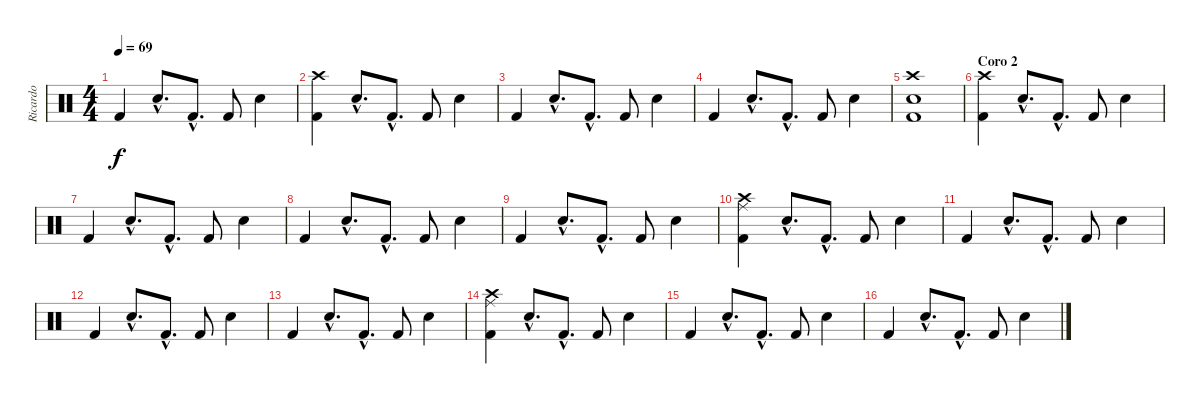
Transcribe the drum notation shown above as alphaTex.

\track ("Ricardo" "Ricardo") {instrument percussion}
\staff {score}
\articulation defaults
\ts (4 4)
\tempo 69
\clef neutral
\ks c "Kick (hit) 2".4{dy f} "Electric Snare (hit)"{hac}.8{d} "Kick (hit) 2"{hac}.8{d} "Kick (hit) 2".8 "Electric Snare (hit)".4
|
("Kick (hit) 2" "Crash high (hit)").4 "Electric Snare (hit)"{hac}.8{d} "Kick (hit) 2"{hac}.8{d} "Kick (hit) 2".8 "Electric Snare (hit)".4 |
"Kick (hit) 2".4 "Electric Snare (hit)"{hac}.8{d} "Kick (hit) 2"{hac}.8{d} "Kick (hit) 2".8 "Electric Snare (hit)".4 |
"Kick (hit) 2".4 "Electric Snare (hit)"{hac}.8{d} "Kick (hit) 2"{hac}.8{d} "Kick (hit) 2".8 "Electric Snare (hit)".4 |
("Kick (hit) 2" "Electric Snare (hit)" "Crash high (hit)").1 |
\section ("" "Coro 2")
("Kick (hit) 2" "Crash high (hit)").4 "Electric Snare (hit)"{hac}.8{d} "Kick (hit) 2"{hac}.8{d} "Kick (hit) 2".8 "Electric Snare (hit)".4 |
"Kick (hit) 2".4 "Electric Snare (hit)"{hac}.8{d} "Kick (hit) 2"{hac}.8{d} "Kick (hit) 2".8 "Electric Snare (hit)".4 |
"Kick (hit) 2".4 "Electric Snare (hit)"{hac}.8{d} "Kick (hit) 2"{hac}.8{d} "Kick (hit) 2".8 "Electric Snare (hit)".4 |
"Kick (hit) 2".4 "Electric Snare (hit)"{hac}.8{d} "Kick (hit) 2"{hac}.8{d} "Kick (hit) 2".8 "Electric Snare (hit)".4 |
("Kick (hit) 2" "Ride (middle)" "Crash high (hit)").4 "Electric Snare (hit)"{hac}.8{d} "Kick (hit) 2"{hac}.8{d} "Kick (hit) 2".8 "Electric Snare (hit)".4 |
"Kick (hit) 2".4 "Electric Snare (hit)"{hac}.8{d} "Kick (hit) 2"{hac}.8{d} "Kick (hit) 2".8 "Electric Snare (hit)".4 |
"Kick (hit) 2".4 "Electric Snare (hit)"{hac}.8{d} "Kick (hit) 2"{hac}.8{d} "Kick (hit) 2".8 "Electric Snare (hit)".4 |
"Kick (hit) 2".4 "Electric Snare (hit)"{hac}.8{d} "Kick (hit) 2"{hac}.8{d} "Kick (hit) 2".8 "Electric Snare (hit)".4 |
("Kick (hit) 2" "Ride (middle)" "Crash high (hit)").4 "Electric Snare (hit)"{hac}.8{d} "Kick (hit) 2"{hac}.8{d} "Kick (hit) 2".8 "Electric Snare (hit)".4 |
"Kick (hit) 2".4 "Electric Snare (hit)"{hac}.8{d} "Kick (hit) 2"{hac}.8{d} "Kick (hit) 2".8 "Electric Snare (hit)".4 |
"Kick (hit) 2".4 "Electric Snare (hit)"{hac}.8{d} "Kick (hit) 2"{hac}.8{d} "Kick (hit) 2".8 "Electric Snare (hit)".4
